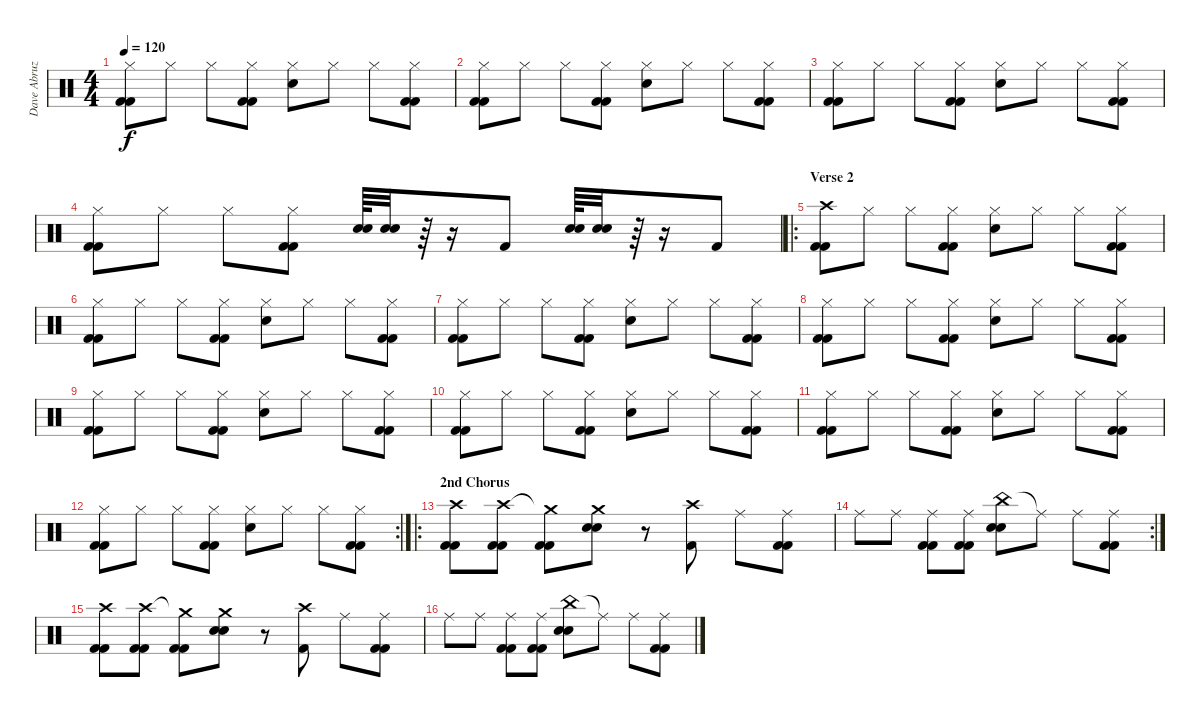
\track ("Dave Abruzzese" "Dave Abruz") {instrument percussion}
\staff {score}
\articulation defaults
\ts (4 4)
\tempo 120
\clef neutral
\ks c
("Hi-Hat (closed)" "Kick (hit) 2" "Kick (hit) 2").8{dy f} "Hi-Hat (closed)".8 "Hi-Hat (closed)".8 ("Hi-Hat (closed)" "Kick (hit) 2" "Kick (hit) 2").8 ("Hi-Hat (closed)" "Electric Snare (hit)").8 "Hi-Hat (closed)".8 "Hi-Hat (closed)".8 ("Hi-Hat (closed)" "Kick (hit) 2" "Kick (hit) 2").8 |
("Hi-Hat (closed)" "Kick (hit) 2" "Kick (hit) 2").8 "Hi-Hat (closed)".8 "Hi-Hat (closed)".8 ("Hi-Hat (closed)" "Kick (hit) 2" "Kick (hit) 2").8 ("Hi-Hat (closed)" "Electric Snare (hit)").8 "Hi-Hat (closed)".8 "Hi-Hat (closed)".8 ("Hi-Hat (closed)" "Kick (hit) 2" "Kick (hit) 2").8 |
("Hi-Hat (closed)" "Kick (hit) 2" "Kick (hit) 2").8 "Hi-Hat (closed)".8 "Hi-Hat (closed)".8 ("Hi-Hat (closed)" "Kick (hit) 2" "Kick (hit) 2").8 ("Hi-Hat (closed)" "Electric Snare (hit)").8 "Hi-Hat (closed)".8 "Hi-Hat (closed)".8 ("Hi-Hat (closed)" "Kick (hit) 2" "Kick (hit) 2").8 |
("Hi-Hat (closed)" "Kick (hit) 2" "Kick (hit) 2").8 "Hi-Hat (closed)".8 "Hi-Hat (closed)".8 ("Hi-Hat (closed)" "Kick (hit) 2" "Kick (hit) 2").8 ("Electric Snare (hit)" "Electric Snare (hit)").64 ("Electric Snare (hit)" "Electric Snare (hit)").32 r.64 r.16 "Kick (hit) 2".8 ("Electric Snare (hit)" "Electric Snare (hit)").64 ("Electric Snare (hit)" "Electric Snare (hit)").32 r.64 r.16 "Kick (hit) 2".8 |
\ro
\section ("" "Verse 2")
("Crash high (hit)" "Kick (hit) 2" "Kick (hit) 2").8 "Hi-Hat (closed)".8 "Hi-Hat (closed)".8 ("Hi-Hat (closed)" "Kick (hit) 2" "Kick (hit) 2").8 ("Hi-Hat (closed)" "Electric Snare (hit)").8 "Hi-Hat (closed)".8 "Hi-Hat (closed)".8 ("Hi-Hat (closed)" "Kick (hit) 2" "Kick (hit) 2").8 |
("Hi-Hat (closed)" "Kick (hit) 2" "Kick (hit) 2").8 "Hi-Hat (closed)".8 "Hi-Hat (closed)".8 ("Hi-Hat (closed)" "Kick (hit) 2" "Kick (hit) 2").8 ("Hi-Hat (closed)" "Electric Snare (hit)").8 "Hi-Hat (closed)".8 "Hi-Hat (closed)".8 ("Hi-Hat (closed)" "Kick (hit) 2" "Kick (hit) 2").8 |
("Hi-Hat (closed)" "Kick (hit) 2" "Kick (hit) 2").8 "Hi-Hat (closed)".8 "Hi-Hat (closed)".8 ("Hi-Hat (closed)" "Kick (hit) 2" "Kick (hit) 2").8 ("Hi-Hat (closed)" "Electric Snare (hit)").8 "Hi-Hat (closed)".8 "Hi-Hat (closed)".8 ("Hi-Hat (closed)" "Kick (hit) 2" "Kick (hit) 2").8 |
("Hi-Hat (closed)" "Kick (hit) 2" "Kick (hit) 2").8 "Hi-Hat (closed)".8 "Hi-Hat (closed)".8 ("Hi-Hat (closed)" "Kick (hit) 2" "Kick (hit) 2").8 ("Hi-Hat (closed)" "Electric Snare (hit)").8 "Hi-Hat (closed)".8 "Hi-Hat (closed)".8 ("Hi-Hat (closed)" "Kick (hit) 2" "Kick (hit) 2").8 |
("Hi-Hat (closed)" "Kick (hit) 2" "Kick (hit) 2").8 "Hi-Hat (closed)".8 "Hi-Hat (closed)".8 ("Hi-Hat (closed)" "Kick (hit) 2" "Kick (hit) 2").8 ("Hi-Hat (closed)" "Electric Snare (hit)").8 "Hi-Hat (closed)".8 "Hi-Hat (closed)".8 ("Hi-Hat (closed)" "Kick (hit) 2" "Kick (hit) 2").8 |
("Hi-Hat (closed)" "Kick (hit) 2" "Kick (hit) 2").8 "Hi-Hat (closed)".8 "Hi-Hat (closed)".8 ("Hi-Hat (closed)" "Kick (hit) 2" "Kick (hit) 2").8 ("Hi-Hat (closed)" "Electric Snare (hit)").8 "Hi-Hat (closed)".8 "Hi-Hat (closed)".8 ("Hi-Hat (closed)" "Kick (hit) 2" "Kick (hit) 2").8 |
("Hi-Hat (closed)" "Kick (hit) 2" "Kick (hit) 2").8 "Hi-Hat (closed)".8 "Hi-Hat (closed)".8 ("Hi-Hat (closed)" "Kick (hit) 2" "Kick (hit) 2").8 ("Hi-Hat (closed)" "Electric Snare (hit)").8 "Hi-Hat (closed)".8 "Hi-Hat (closed)".8 ("Hi-Hat (closed)" "Kick (hit) 2" "Kick (hit) 2").8 |
\rc 2
("Hi-Hat (closed)" "Kick (hit) 2" "Kick (hit) 2").8 "Hi-Hat (closed)".8 "Hi-Hat (closed)".8 ("Hi-Hat (closed)" "Kick (hit) 2" "Kick (hit) 2").8 ("Hi-Hat (closed)" "Electric Snare (hit)").8 "Hi-Hat (closed)".8 "Hi-Hat (closed)".8 ("Hi-Hat (closed)" "Kick (hit) 2" "Kick (hit) 2").8 |
\ro
\section ("" "2nd Chorus")
("Crash high (hit)" "Kick (hit) 2" "Kick (hit) 2").8 ("Crash high (hit)" "Kick (hit) 2" "Kick (hit) 2").8 ("Crash medium (hit)"{t} "Kick (hit) 2" "Kick (hit) 2").8 ("Crash medium (hit)" "Electric Snare (hit)" "Electric Snare (hit)").8 r.8 ("Crash high (hit)" "Kick (hit) 2").8 "Ride (middle)".8 ("Ride (middle)" "Kick (hit) 2" "Kick (hit) 2").8 |
\rc 2 "Ride (middle)".8 "Ride (middle)".8
("Ride (middle)" "Kick (hit) 2" "Kick (hit) 2").8 ("Ride (middle)" "Kick (hit) 2" "Kick (hit) 2").8 ("China (hit)" "Electric Snare (hit)" "Electric Snare (hit)").8 "Ride (middle)"{t}.8 "Ride (middle)".8 ("Ride (middle)" "Kick (hit) 2" "Kick (hit) 2").8 |
("Crash high (hit)" "Kick (hit) 2" "Kick (hit) 2").8 ("Crash high (hit)" "Kick (hit) 2" "Kick (hit) 2").8 ("Crash medium (hit)"{t} "Kick (hit) 2" "Kick (hit) 2").8 ("Crash medium (hit)" "Electric Snare (hit)" "Electric Snare (hit)").8 r.8 ("Crash high (hit)" "Kick (hit) 2").8 "Ride (middle)".8 ("Ride (middle)" "Kick (hit) 2" "Kick (hit) 2").8 |
"Ride (middle)".8 "Ride (middle)".8 ("Ride (middle)" "Kick (hit) 2" "Kick (hit) 2").8 ("Ride (middle)" "Kick (hit) 2" "Kick (hit) 2").8 ("China (hit)" "Electric Snare (hit)" "Electric Snare (hit)").8 "Ride (middle)"{t}.8 "Ride (middle)".8 ("Ride (middle)" "Kick (hit) 2" "Kick (hit) 2").8
